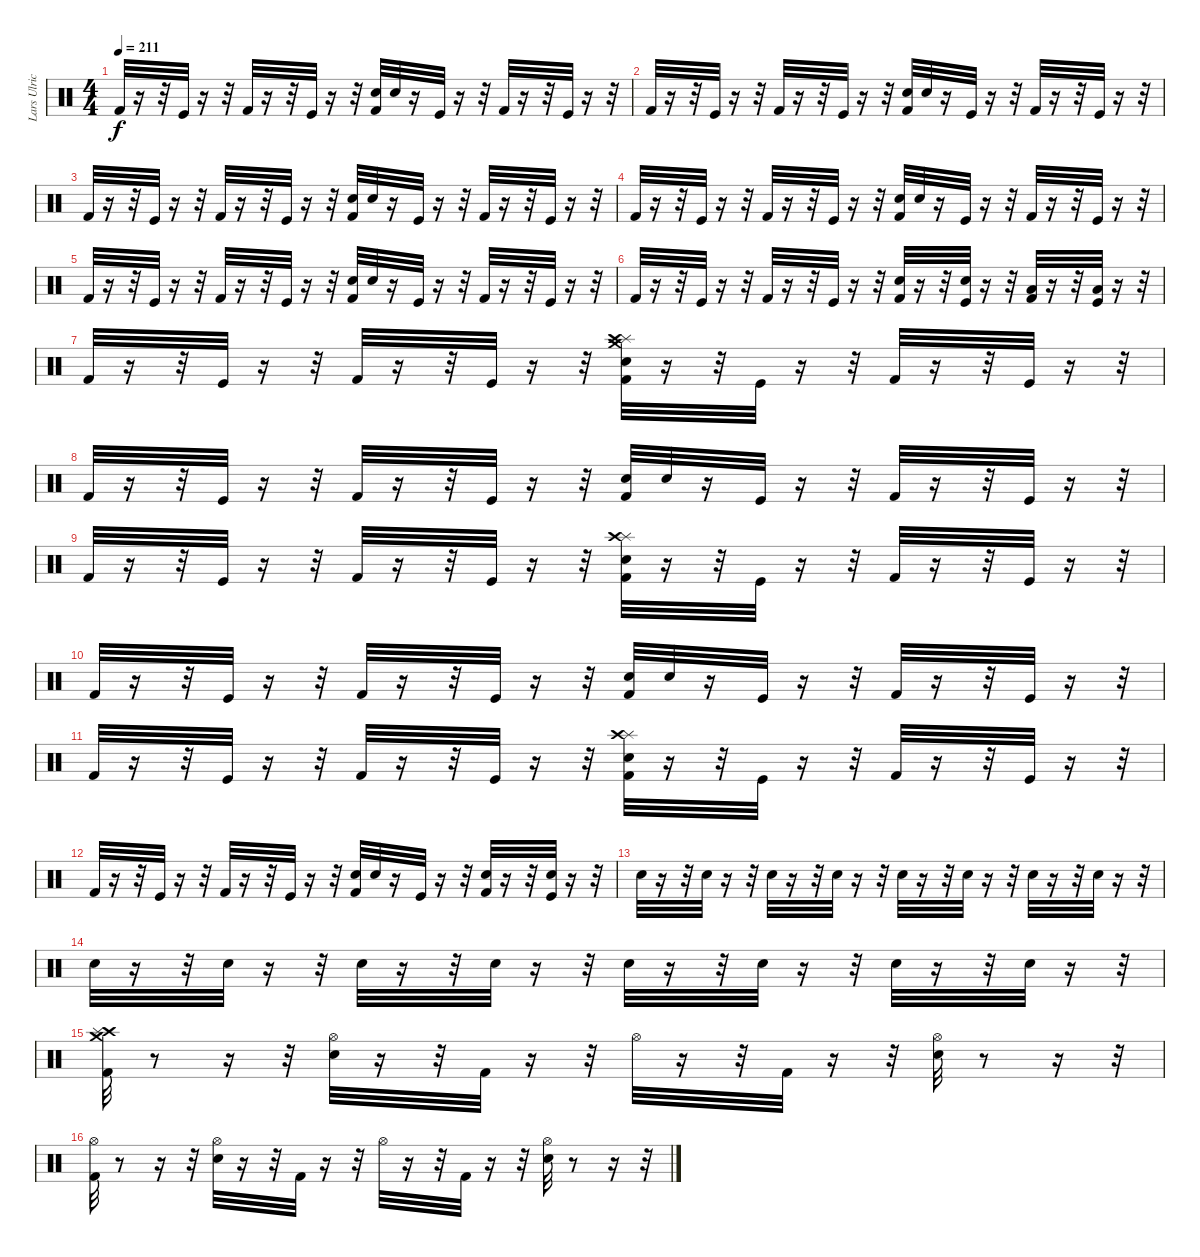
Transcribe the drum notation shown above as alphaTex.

\track ("Lars Ulrich (Drums)" "Lars Ulric") {instrument percussion}
\staff {score}
\articulation defaults
\ts (4 4)
\tempo 211
\clef neutral
\ks c "Kick (hit) 2".32{dy f}
r.16 r.32 "Kick (hit)".32 r.16 r.32 "Kick (hit) 2".32 r.16 r.32 "Kick (hit)".32 r.16 r.32 ("Snare (hit) 2" "Kick (hit) 2").32 "Snare (hit) 2".32 r.16 "Kick (hit)".32 r.16 r.32 "Kick (hit) 2".32 r.16 r.32 "Kick (hit)".32 r.16 r.32 |
"Kick (hit) 2".32 r.16 r.32 "Kick (hit)".32 r.16 r.32 "Kick (hit) 2".32 r.16 r.32 "Kick (hit)".32 r.16 r.32 ("Snare (hit) 2" "Kick (hit) 2").32 "Snare (hit) 2".32 r.16 "Kick (hit)".32 r.16 r.32 "Kick (hit) 2".32 r.16 r.32 "Kick (hit)".32 r.16 r.32 |
"Kick (hit) 2".32 r.16 r.32 "Kick (hit)".32 r.16 r.32 "Kick (hit) 2".32 r.16 r.32 "Kick (hit)".32 r.16 r.32 ("Snare (hit) 2" "Kick (hit) 2").32 "Snare (hit) 2".32 r.16 "Kick (hit)".32 r.16 r.32 "Kick (hit) 2".32 r.16 r.32 "Kick (hit)".32 r.16 r.32 |
"Kick (hit) 2".32 r.16 r.32 "Kick (hit)".32 r.16 r.32 "Kick (hit) 2".32 r.16 r.32 "Kick (hit)".32 r.16 r.32 ("Snare (hit) 2" "Kick (hit) 2").32 "Snare (hit) 2".32 r.16 "Kick (hit)".32 r.16 r.32 "Kick (hit) 2".32 r.16 r.32 "Kick (hit)".32 r.16 r.32 |
"Kick (hit) 2".32 r.16 r.32 "Kick (hit)".32 r.16 r.32 "Kick (hit) 2".32 r.16 r.32 "Kick (hit)".32 r.16 r.32 ("Snare (hit) 2" "Kick (hit) 2").32 "Snare (hit) 2".32 r.16 "Kick (hit)".32 r.16 r.32 "Kick (hit) 2".32 r.16 r.32 "Kick (hit)".32 r.16 r.32 |
"Kick (hit) 2".32 r.16 r.32 "Kick (hit)".32 r.16 r.32 "Kick (hit) 2".32 r.16 r.32 "Kick (hit)".32 r.16 r.32 ("Snare (hit) 2" "Kick (hit) 2").32 r.16 r.32 ("Snare (hit) 2" "Kick (hit)").32 r.16 r.32 ("Low Tom (hit)" "Kick (hit) 2").32 r.16 r.32 ("Low Floor Tom (hit)" "Kick (hit)").32 r.16 r.32 |
"Kick (hit) 2".32 r.16 r.32 "Kick (hit)".32 r.16 r.32 "Kick (hit) 2".32 r.16 r.32 "Kick (hit)".32 r.16 r.32 ("Crash medium (hit)" "Splash (hit)" "Crash high (hit)" "Snare (hit) 2" "Kick (hit) 2").32 r.16 r.32 "Kick (hit)".32 r.16 r.32 "Kick (hit) 2".32 r.16 r.32 "Kick (hit)".32 r.16 r.32 |
"Kick (hit) 2".32 r.16 r.32 "Kick (hit)".32 r.16 r.32 "Kick (hit) 2".32 r.16 r.32 "Kick (hit)".32 r.16 r.32 ("Snare (hit) 2" "Kick (hit) 2").32 "Snare (hit) 2".32 r.16 "Kick (hit)".32 r.16 r.32 "Kick (hit) 2".32 r.16 r.32 "Kick (hit)".32 r.16 r.32 |
"Kick (hit) 2".32 r.16 r.32 "Kick (hit)".32 r.16 r.32 "Kick (hit) 2".32 r.16 r.32 "Kick (hit)".32 r.16 r.32 ("Splash (hit)" "Crash high (hit)" "Snare (hit) 2" "Kick (hit) 2").32 r.16 r.32 "Kick (hit)".32 r.16 r.32 "Kick (hit) 2".32 r.16 r.32 "Kick (hit)".32 r.16 r.32 |
"Kick (hit) 2".32 r.16 r.32 "Kick (hit)".32 r.16 r.32 "Kick (hit) 2".32 r.16 r.32 "Kick (hit)".32 r.16 r.32 ("Snare (hit) 2" "Kick (hit) 2").32 "Snare (hit) 2".32 r.16 "Kick (hit)".32 r.16 r.32 "Kick (hit) 2".32 r.16 r.32 "Kick (hit)".32 r.16 r.32 |
"Kick (hit) 2".32 r.16 r.32 "Kick (hit)".32 r.16 r.32 "Kick (hit) 2".32 r.16 r.32 "Kick (hit)".32 r.16 r.32 ("Splash (hit)" "Crash high (hit)" "Snare (hit) 2" "Kick (hit) 2").32 r.16 r.32 "Kick (hit)".32 r.16 r.32 "Kick (hit) 2".32 r.16 r.32 "Kick (hit)".32 r.16 r.32 |
"Kick (hit) 2".32 r.16 r.32 "Kick (hit)".32 r.16 r.32 "Kick (hit) 2".32 r.16 r.32 "Kick (hit)".32 r.16 r.32 ("Snare (hit) 2" "Kick (hit) 2").32 "Snare (hit) 2".32 r.16 "Kick (hit)".32 r.16 r.32 ("Snare (hit) 2" "Kick (hit) 2").32 r.16 r.32 ("Snare (hit) 2" "Kick (hit)").32 r.16 r.32 |
"Snare (hit) 2".32 r.16 r.32 "Snare (hit) 2".32 r.16 r.32 "Snare (hit) 2".32 r.16 r.32 "Snare (hit) 2".32 r.16 r.32 "Snare (hit) 2".32 r.16 r.32 "Snare (hit) 2".32 r.16 r.32 "Snare (hit) 2".32 r.16 r.32 "Snare (hit) 2".32 r.16 r.32 |
"Snare (hit) 2".32 r.16 r.32 "Snare (hit) 2".32 r.16 r.32 "Snare (hit) 2".32 r.16 r.32 "Snare (hit) 2".32 r.16 r.32 "Snare (hit) 2".32 r.16 r.32 "Snare (hit) 2".32 r.16 r.32 "Snare (hit) 2".32 r.16 r.32 "Snare (hit) 2".32 r.16 r.32 |
("Kick (hit) 2" "Crash high (hit)" "Crash medium (hit)" "Splash (hit)").32 r.8 r.16 r.32 ("Snare (hit) 2" "Hi-Hat (open)").32 r.16 r.32 "Kick (hit) 2".32 r.16 r.32 "Hi-Hat (open)".32 r.16 r.32 "Kick (hit) 2".32 r.16 r.32 ("Snare (hit) 2" "Hi-Hat (open)").32 r.8 r.16 r.32 |
("Kick (hit) 2" "Hi-Hat (open)").32 r.8 r.16 r.32 ("Snare (hit) 2" "Hi-Hat (open)").32 r.16 r.32 "Kick (hit) 2".32 r.16 r.32 "Hi-Hat (open)".32 r.16 r.32 "Kick (hit) 2".32 r.16 r.32 ("Snare (hit) 2" "Hi-Hat (open)").32 r.8 r.16 r.32
